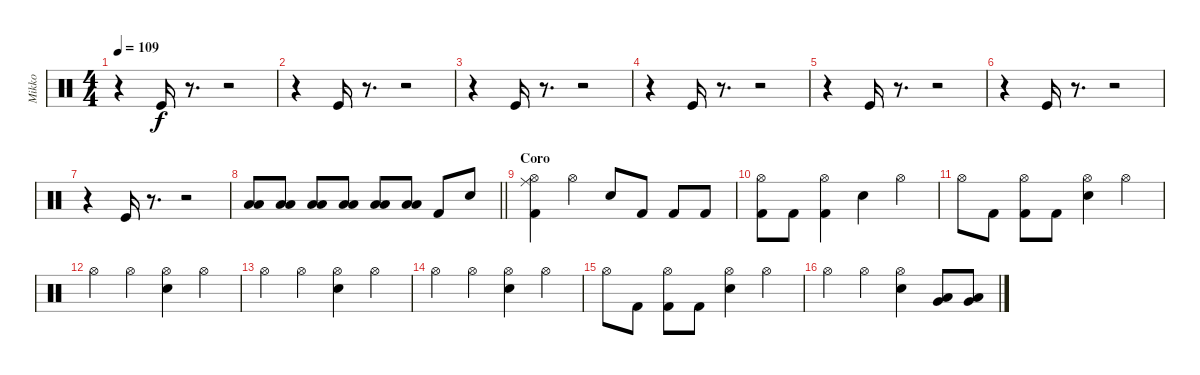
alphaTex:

\track ("Mikko" "Mikko") {instrument percussion}
\staff {score}
\articulation defaults
\ts (4 4)
\tempo 109
\clef neutral
\ks c
r.4{dy f} "Kick (hit)".16 r.8{d} r.2 |
r.4 "Kick (hit)".16 r.8{d} r.2 |
r.4 "Kick (hit)".16 r.8{d} r.2 |
r.4 "Kick (hit)".16 r.8{d} r.2 |
r.4 "Kick (hit)".16 r.8{d} r.2 |
r.4 "Kick (hit)".16 r.8{d} r.2 |
r.4 "Kick (hit)".16 r.8{d} r.2 |
\barLineRight lightlight
("Low Tom (hit)" "Low Floor Tom (hit)").8 ("Low Tom (hit)" "Low Floor Tom (hit)").8 ("Low Tom (hit)" "Low Floor Tom (hit)").8 ("Low Tom (hit)" "Low Floor Tom (hit)").8 ("Low Tom (hit)" "Low Floor Tom (hit)").8 ("Low Tom (hit)" "Low Floor Tom (hit)").8 "Kick (hit) 2".8 "Electric Snare (hit)".8 |
\section ("" "Coro")
("Hi-Hat (open)" "Ride (middle)" "Kick (hit) 2").4 "Hi-Hat (open)".4 "Snare (hit) 2".8 "Kick (hit) 2".8 "Kick (hit) 2".8 "Kick (hit) 2".8 |
("Hi-Hat (open)" "Kick (hit) 2").8 "Kick (hit) 2".8 ("Hi-Hat (open)" "Kick (hit) 2").4 "Snare (hit) 2".4 "Hi-Hat (open)".4 |
"Hi-Hat (open)".8 "Kick (hit) 2".8 ("Hi-Hat (open)" "Kick (hit) 2").8 "Kick (hit) 2".8 ("Hi-Hat (open)" "Snare (hit) 2").4 "Hi-Hat (open)".4 |
"Hi-Hat (open)".4 "Hi-Hat (open)".4 ("Hi-Hat (open)" "Snare (hit) 2").4 "Hi-Hat (open)".4 |
"Hi-Hat (open)".4 "Hi-Hat (open)".4 ("Hi-Hat (open)" "Snare (hit) 2").4 "Hi-Hat (open)".4 |
"Hi-Hat (open)".4 "Hi-Hat (open)".4 ("Hi-Hat (open)" "Snare (hit) 2").4 "Hi-Hat (open)".4 |
"Hi-Hat (open)".8 "Kick (hit) 2".8 ("Hi-Hat (open)" "Kick (hit) 2").8 "Kick (hit) 2".8 ("Hi-Hat (open)" "Snare (hit) 2").4 "Hi-Hat (open)".4 |
"Hi-Hat (open)".4 "Hi-Hat (open)".4 ("Hi-Hat (open)" "Snare (hit) 2").4 ("Very Low Tom (hit)" "Low Floor Tom (hit)").8 ("Very Low Tom (hit)" "Low Floor Tom (hit)").8
